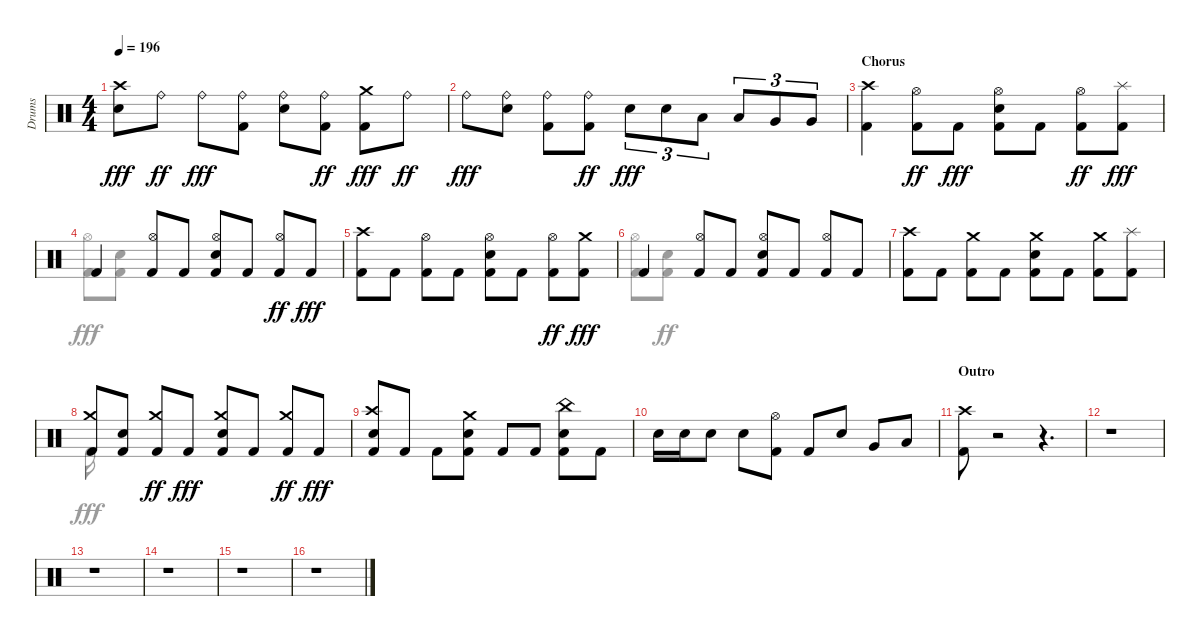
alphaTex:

\track ("Drums" "Drums") {instrument percussion}
\staff {score}
\articulation defaults
\voice
\ts (4 4)
\tempo 196
\clef neutral
\ks aminor
("Snare (hit) 2" "Crash high (hit)").8{dy fff} "Ride (bell)".8{dy ff} "Ride (bell)".8{dy fff} ("Kick (hit) 2" "Ride (bell)").8 ("Ride (bell)" "Snare (hit) 2").8 ("Kick (hit) 2" "Ride (bell)").8{dy ff} ("Kick (hit) 2" "Crash medium (hit)").8{dy fff} "Ride (bell)".8{dy ff} |
"Ride (bell)".8{dy fff} ("Ride (bell)" "Snare (hit) 2").8 ("Ride (bell)" "Kick (hit) 2").8 ("Kick (hit) 2" "Ride (bell)").8{dy ff} "Snare (hit) 2".8{tu (3 2) dy fff} "Snare (hit) 2".8{tu (3 2)} "Low Tom (hit)".8{tu (3 2)} "Low Tom (hit)".8{tu (3 2)} "Very Low Tom (hit)".8{tu (3 2)} "Very Low Tom (hit)".8{tu (3 2)} |
\section ("" "Chorus")
("Kick (hit) 2" "Crash high (hit)").4 ("Hi-Hat (open)" "Kick (hit) 2").8{dy ff} "Kick (hit) 2".8{dy fff} ("Hi-Hat (open)" "Kick (hit) 2" "Snare (hit) 2").8 "Kick (hit) 2".8 ("Kick (hit) 2" "Hi-Hat (open)").8{dy ff} ("Splash (hit)" "Kick (hit) 2").8{dy fff} |
"Kick (hit) 2".4 ("Hi-Hat (open)" "Kick (hit) 2").8 "Kick (hit) 2".8 ("Kick (hit) 2" "Snare (hit) 2" "Hi-Hat (open)").8 "Kick (hit) 2".8 ("Hi-Hat (open)" "Kick (hit) 2").8{dy ff} "Kick (hit) 2".8{dy fff} |
("Kick (hit) 2" "Crash high (hit)").8 "Kick (hit) 2".8 ("Kick (hit) 2" "Hi-Hat (open)").8 "Kick (hit) 2".8 ("Hi-Hat (open)" "Kick (hit) 2" "Snare (hit) 2").8 "Kick (hit) 2".8 ("Kick (hit) 2" "Hi-Hat (open)").8{dy ff} ("Kick (hit) 2" "Crash medium (hit)").8{dy fff} |
"Kick (hit) 2".4 ("Kick (hit) 2" "Hi-Hat (open)").8 "Kick (hit) 2".8 ("Kick (hit) 2" "Snare (hit) 2" "Hi-Hat (open)").8 "Kick (hit) 2".8 ("Kick (hit) 2" "Hi-Hat (open)").8 "Kick (hit) 2".8 |
("Crash high (hit)" "Kick (hit) 2").8 "Kick (hit) 2".8 ("Crash medium (hit)" "Kick (hit) 2").8 "Kick (hit) 2".8 ("Kick (hit) 2" "Snare (hit) 2" "Crash medium (hit)").8 "Kick (hit) 2".8 ("Crash medium (hit)" "Kick (hit) 2").8 ("Kick (hit) 2" "Splash (hit)").8 |
("Crash medium (hit)" "Kick (hit) 2").8 ("Snare (hit) 2" "Kick (hit) 2").8 ("Crash medium (hit)" "Kick (hit) 2").8{dy ff} "Kick (hit) 2".8{dy fff} ("Crash medium (hit)" "Kick (hit) 2" "Snare (hit) 2").8 "Kick (hit) 2".8 ("Crash medium (hit)" "Kick (hit) 2").8{dy ff} "Kick (hit) 2".8{dy fff} |
("Kick (hit) 2" "Crash high (hit)" "Snare (hit) 2").8 "Kick (hit) 2".8 "Kick (hit) 2".8 ("Crash medium (hit)" "Kick (hit) 2" "Snare (hit) 2").8 "Kick (hit) 2".8 "Kick (hit) 2".8 ("Kick (hit) 2" "Snare (hit) 2" "China (hit)").8 "Kick (hit) 2".8 |
"Snare (hit) 2".16 "Snare (hit) 2".16 "Snare (hit) 2".8 "Snare (hit) 2".8 ("Hi-Hat (open)" "Kick (hit) 2").8 "Kick (hit) 2".8 "Snare (hit) 2".8 "Very Low Tom (hit)".8 "Low Floor Tom (hit)".8 |
\section ("" "Outro")
("Kick (hit) 2" "Crash high (hit)").8 r.2 r.4{d} |
r.1 |
r.1 |
r.1 |
r.1 |
r.1
\voice
\clef neutral
\ottava regular
\simile none
\ks aminor
|
|
|
("Hi-Hat (open)" "Kick (hit) 2").8 ("Snare (hit) 2" "Kick (hit) 2").8 |
|
("Kick (hit) 2" "Hi-Hat (open)").8 ("Snare (hit) 2" "Kick (hit) 2").8{dy ff} |
|
"Kick (hit) 2".16{dy fff} |
|
|
|
|
|
|
|
